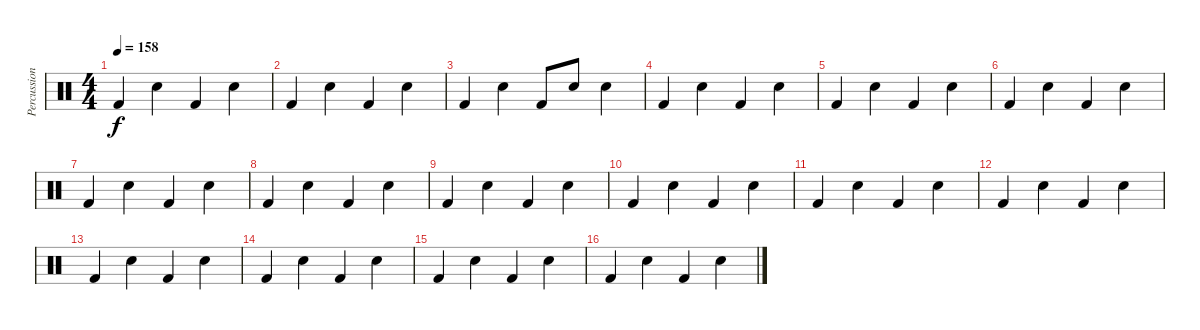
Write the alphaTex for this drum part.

\track ("Percussions" "Percussion") {instrument percussion}
\staff {score}
\articulation defaults
\ts (4 4)
\tempo 158
\clef neutral
\ks c "Kick (hit) 2".4{dy f} "Electric Snare (hit)".4 "Kick (hit) 2".4 "Electric Snare (hit)".4
|
"Kick (hit) 2".4{volume 16} "Electric Snare (hit)".4 "Kick (hit) 2".4 "Electric Snare (hit)".4 |
"Kick (hit) 2".4{volume 16} "Electric Snare (hit)".4 "Kick (hit) 2".8 "Electric Snare (hit)".8 "Electric Snare (hit)".4 |
"Kick (hit) 2".4{volume 16} "Electric Snare (hit)".4 "Kick (hit) 2".4 "Electric Snare (hit)".4 |
"Kick (hit) 2".4 "Electric Snare (hit)".4 "Kick (hit) 2".4 "Electric Snare (hit)".4 |
"Kick (hit) 2".4{volume 16} "Electric Snare (hit)".4 "Kick (hit) 2".4 "Electric Snare (hit)".4 |
"Kick (hit) 2".4 "Electric Snare (hit)".4 "Kick (hit) 2".4 "Electric Snare (hit)".4 |
"Kick (hit) 2".4{volume 16} "Electric Snare (hit)".4 "Kick (hit) 2".4 "Electric Snare (hit)".4 |
"Kick (hit) 2".4 "Electric Snare (hit)".4 "Kick (hit) 2".4 "Electric Snare (hit)".4 |
"Kick (hit) 2".4{volume 16} "Electric Snare (hit)".4 "Kick (hit) 2".4 "Electric Snare (hit)".4 |
"Kick (hit) 2".4 "Electric Snare (hit)".4 "Kick (hit) 2".4 "Electric Snare (hit)".4 |
"Kick (hit) 2".4{volume 16} "Electric Snare (hit)".4 "Kick (hit) 2".4 "Electric Snare (hit)".4 |
"Kick (hit) 2".4 "Electric Snare (hit)".4 "Kick (hit) 2".4 "Electric Snare (hit)".4 |
"Kick (hit) 2".4{volume 16} "Electric Snare (hit)".4 "Kick (hit) 2".4 "Electric Snare (hit)".4 |
"Kick (hit) 2".4 "Electric Snare (hit)".4 "Kick (hit) 2".4 "Electric Snare (hit)".4 |
"Kick (hit) 2".4{volume 16} "Electric Snare (hit)".4 "Kick (hit) 2".4 "Electric Snare (hit)".4
